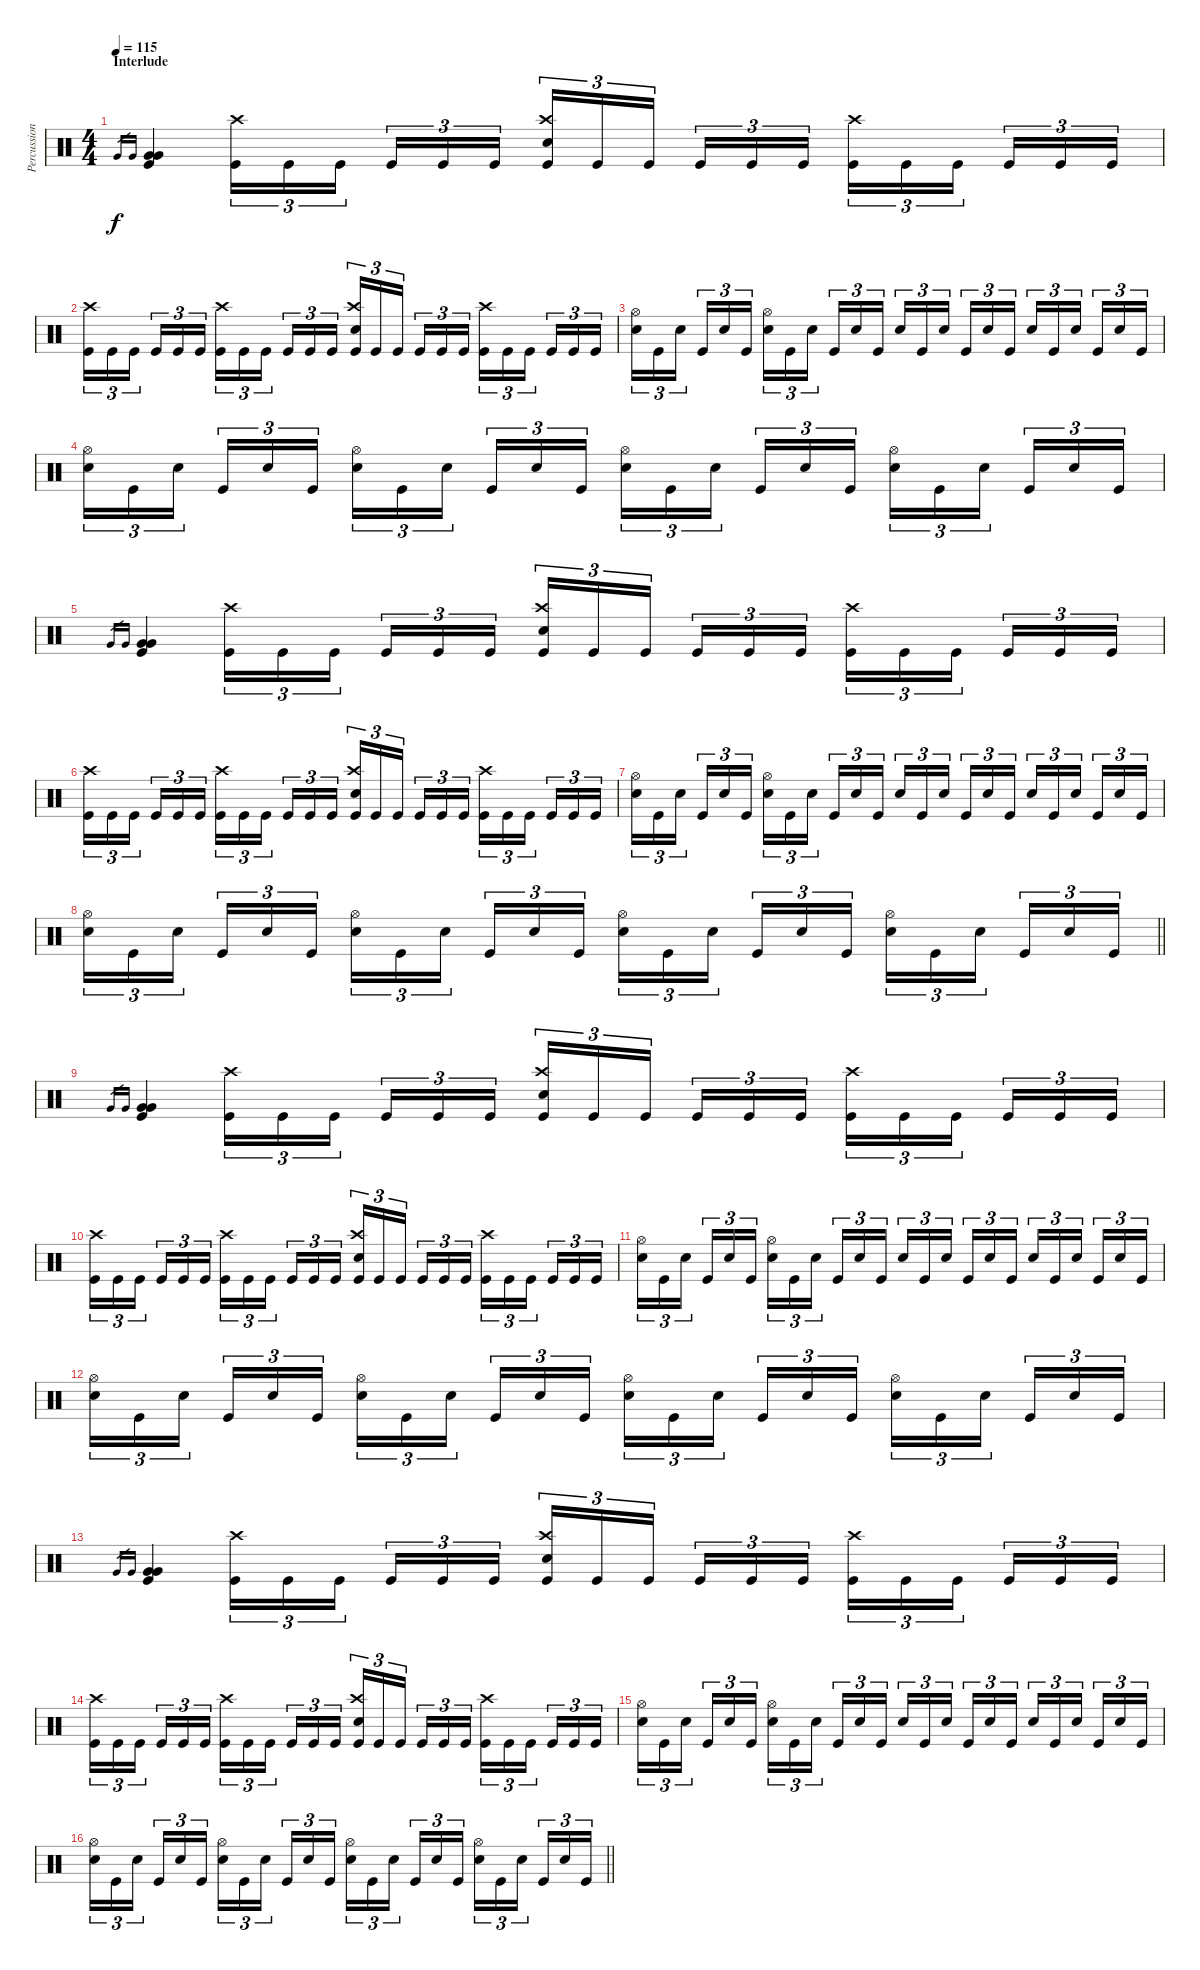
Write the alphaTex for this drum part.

\track ("Percussions" "Percussion") {instrument percussion}
\staff {score}
\articulation defaults
\ts (4 4)
\section ("" "Interlude")
\tempo 115
\clef neutral
\ks c "Very Low Tom (hit)".16{gr dy f} "Very Low Tom (hit)".16{gr}
("Very Low Tom (hit)" "Very Low Tom (hit)" "Kick (hit)").4 ("Crash high (hit)" "Kick (hit)").16{tu (3 2)} "Kick (hit)".16{tu (3 2)} "Kick (hit)".16{tu (3 2) beam splitsecondary} "Kick (hit)".16{tu (3 2)} "Kick (hit)".16{tu (3 2)} "Kick (hit)".16{tu (3 2)} ("Crash high (hit)" "Electric Snare (hit)" "Kick (hit)").16{tu (3 2)} "Kick (hit)".16{tu (3 2)} "Kick (hit)".16{tu (3 2) beam splitsecondary} "Kick (hit)".16{tu (3 2)} "Kick (hit)".16{tu (3 2)} "Kick (hit)".16{tu (3 2)} ("Crash high (hit)" "Kick (hit)").16{tu (3 2)} "Kick (hit)".16{tu (3 2)} "Kick (hit)".16{tu (3 2) beam splitsecondary} "Kick (hit)".16{tu (3 2)} "Kick (hit)".16{tu (3 2)} "Kick (hit)".16{tu (3 2)} |
("Crash high (hit)" "Kick (hit)").16{tu (3 2)} "Kick (hit)".16{tu (3 2)} "Kick (hit)".16{tu (3 2) beam splitsecondary} "Kick (hit)".16{tu (3 2)} "Kick (hit)".16{tu (3 2)} "Kick (hit)".16{tu (3 2)} ("Crash high (hit)" "Kick (hit)").16{tu (3 2)} "Kick (hit)".16{tu (3 2)} "Kick (hit)".16{tu (3 2) beam splitsecondary} "Kick (hit)".16{tu (3 2)} "Kick (hit)".16{tu (3 2)} "Kick (hit)".16{tu (3 2)} ("Crash high (hit)" "Electric Snare (hit)" "Kick (hit)").16{tu (3 2)} "Kick (hit)".16{tu (3 2)} "Kick (hit)".16{tu (3 2) beam splitsecondary} "Kick (hit)".16{tu (3 2)} "Kick (hit)".16{tu (3 2)} "Kick (hit)".16{tu (3 2)} ("Crash high (hit)" "Kick (hit)").16{tu (3 2)} "Kick (hit)".16{tu (3 2)} "Kick (hit)".16{tu (3 2) beam splitsecondary} "Kick (hit)".16{tu (3 2)} "Kick (hit)".16{tu (3 2)} "Kick (hit)".16{tu (3 2)} |
("Hi-Hat (open)" "Electric Snare (hit)").16{tu (3 2)} "Kick (hit)".16{tu (3 2)} "Electric Snare (hit)".16{tu (3 2) beam splitsecondary} "Kick (hit)".16{tu (3 2)} "Electric Snare (hit)".16{tu (3 2)} "Kick (hit)".16{tu (3 2)} ("Hi-Hat (open)" "Electric Snare (hit)").16{tu (3 2)} "Kick (hit)".16{tu (3 2)} "Electric Snare (hit)".16{tu (3 2) beam splitsecondary} "Kick (hit)".16{tu (3 2)} "Electric Snare (hit)".16{tu (3 2)} "Kick (hit)".16{tu (3 2)} "Electric Snare (hit)".16{tu (3 2)} "Kick (hit)".16{tu (3 2)} "Electric Snare (hit)".16{tu (3 2) beam splitsecondary} "Kick (hit)".16{tu (3 2)} "Electric Snare (hit)".16{tu (3 2)} "Kick (hit)".16{tu (3 2)} "Electric Snare (hit)".16{tu (3 2)} "Kick (hit)".16{tu (3 2)} "Electric Snare (hit)".16{tu (3 2) beam splitsecondary} "Kick (hit)".16{tu (3 2)} "Electric Snare (hit)".16{tu (3 2)} "Kick (hit)".16{tu (3 2)} |
("Hi-Hat (open)" "Electric Snare (hit)").16{tu (3 2)} "Kick (hit)".16{tu (3 2)} "Electric Snare (hit)".16{tu (3 2) beam splitsecondary} "Kick (hit)".16{tu (3 2)} "Electric Snare (hit)".16{tu (3 2)} "Kick (hit)".16{tu (3 2)} ("Hi-Hat (open)" "Electric Snare (hit)").16{tu (3 2)} "Kick (hit)".16{tu (3 2)} "Electric Snare (hit)".16{tu (3 2) beam splitsecondary} "Kick (hit)".16{tu (3 2)} "Electric Snare (hit)".16{tu (3 2)} "Kick (hit)".16{tu (3 2)} ("Hi-Hat (open)" "Electric Snare (hit)").16{tu (3 2)} "Kick (hit)".16{tu (3 2)} "Electric Snare (hit)".16{tu (3 2) beam splitsecondary} "Kick (hit)".16{tu (3 2)} "Electric Snare (hit)".16{tu (3 2)} "Kick (hit)".16{tu (3 2)} ("Hi-Hat (open)" "Electric Snare (hit)").16{tu (3 2)} "Kick (hit)".16{tu (3 2)} "Electric Snare (hit)".16{tu (3 2) beam splitsecondary} "Kick (hit)".16{tu (3 2)} "Electric Snare (hit)".16{tu (3 2)} "Kick (hit)".16{tu (3 2)} |
"Very Low Tom (hit)".16{gr} "Very Low Tom (hit)".16{gr} ("Very Low Tom (hit)" "Very Low Tom (hit)" "Kick (hit)").4 ("Crash high (hit)" "Kick (hit)").16{tu (3 2)} "Kick (hit)".16{tu (3 2)} "Kick (hit)".16{tu (3 2) beam splitsecondary} "Kick (hit)".16{tu (3 2)} "Kick (hit)".16{tu (3 2)} "Kick (hit)".16{tu (3 2)} ("Crash high (hit)" "Electric Snare (hit)" "Kick (hit)").16{tu (3 2)} "Kick (hit)".16{tu (3 2)} "Kick (hit)".16{tu (3 2) beam splitsecondary} "Kick (hit)".16{tu (3 2)} "Kick (hit)".16{tu (3 2)} "Kick (hit)".16{tu (3 2)} ("Crash high (hit)" "Kick (hit)").16{tu (3 2)} "Kick (hit)".16{tu (3 2)} "Kick (hit)".16{tu (3 2) beam splitsecondary} "Kick (hit)".16{tu (3 2)} "Kick (hit)".16{tu (3 2)} "Kick (hit)".16{tu (3 2)} |
("Crash high (hit)" "Kick (hit)").16{tu (3 2)} "Kick (hit)".16{tu (3 2)} "Kick (hit)".16{tu (3 2) beam splitsecondary} "Kick (hit)".16{tu (3 2)} "Kick (hit)".16{tu (3 2)} "Kick (hit)".16{tu (3 2)} ("Crash high (hit)" "Kick (hit)").16{tu (3 2)} "Kick (hit)".16{tu (3 2)} "Kick (hit)".16{tu (3 2) beam splitsecondary} "Kick (hit)".16{tu (3 2)} "Kick (hit)".16{tu (3 2)} "Kick (hit)".16{tu (3 2)} ("Crash high (hit)" "Electric Snare (hit)" "Kick (hit)").16{tu (3 2)} "Kick (hit)".16{tu (3 2)} "Kick (hit)".16{tu (3 2) beam splitsecondary} "Kick (hit)".16{tu (3 2)} "Kick (hit)".16{tu (3 2)} "Kick (hit)".16{tu (3 2)} ("Crash high (hit)" "Kick (hit)").16{tu (3 2)} "Kick (hit)".16{tu (3 2)} "Kick (hit)".16{tu (3 2) beam splitsecondary} "Kick (hit)".16{tu (3 2)} "Kick (hit)".16{tu (3 2)} "Kick (hit)".16{tu (3 2)} |
("Hi-Hat (open)" "Electric Snare (hit)").16{tu (3 2)} "Kick (hit)".16{tu (3 2)} "Electric Snare (hit)".16{tu (3 2) beam splitsecondary} "Kick (hit)".16{tu (3 2)} "Electric Snare (hit)".16{tu (3 2)} "Kick (hit)".16{tu (3 2)} ("Hi-Hat (open)" "Electric Snare (hit)").16{tu (3 2)} "Kick (hit)".16{tu (3 2)} "Electric Snare (hit)".16{tu (3 2) beam splitsecondary} "Kick (hit)".16{tu (3 2)} "Electric Snare (hit)".16{tu (3 2)} "Kick (hit)".16{tu (3 2)} "Electric Snare (hit)".16{tu (3 2)} "Kick (hit)".16{tu (3 2)} "Electric Snare (hit)".16{tu (3 2) beam splitsecondary} "Kick (hit)".16{tu (3 2)} "Electric Snare (hit)".16{tu (3 2)} "Kick (hit)".16{tu (3 2)} "Electric Snare (hit)".16{tu (3 2)} "Kick (hit)".16{tu (3 2)} "Electric Snare (hit)".16{tu (3 2) beam splitsecondary} "Kick (hit)".16{tu (3 2)} "Electric Snare (hit)".16{tu (3 2)} "Kick (hit)".16{tu (3 2)} |
\barLineRight lightlight
("Hi-Hat (open)" "Electric Snare (hit)").16{tu (3 2)} "Kick (hit)".16{tu (3 2)} "Electric Snare (hit)".16{tu (3 2) beam splitsecondary} "Kick (hit)".16{tu (3 2)} "Electric Snare (hit)".16{tu (3 2)} "Kick (hit)".16{tu (3 2)} ("Hi-Hat (open)" "Electric Snare (hit)").16{tu (3 2)} "Kick (hit)".16{tu (3 2)} "Electric Snare (hit)".16{tu (3 2) beam splitsecondary} "Kick (hit)".16{tu (3 2)} "Electric Snare (hit)".16{tu (3 2)} "Kick (hit)".16{tu (3 2)} ("Hi-Hat (open)" "Electric Snare (hit)").16{tu (3 2)} "Kick (hit)".16{tu (3 2)} "Electric Snare (hit)".16{tu (3 2) beam splitsecondary} "Kick (hit)".16{tu (3 2)} "Electric Snare (hit)".16{tu (3 2)} "Kick (hit)".16{tu (3 2)} ("Hi-Hat (open)" "Electric Snare (hit)").16{tu (3 2)} "Kick (hit)".16{tu (3 2)} "Electric Snare (hit)".16{tu (3 2) beam splitsecondary} "Kick (hit)".16{tu (3 2)} "Electric Snare (hit)".16{tu (3 2)} "Kick (hit)".16{tu (3 2)} |
"Very Low Tom (hit)".16{gr} "Very Low Tom (hit)".16{gr} ("Very Low Tom (hit)" "Very Low Tom (hit)" "Kick (hit)").4 ("Crash high (hit)" "Kick (hit)").16{tu (3 2)} "Kick (hit)".16{tu (3 2)} "Kick (hit)".16{tu (3 2) beam splitsecondary} "Kick (hit)".16{tu (3 2)} "Kick (hit)".16{tu (3 2)} "Kick (hit)".16{tu (3 2)} ("Crash high (hit)" "Electric Snare (hit)" "Kick (hit)").16{tu (3 2)} "Kick (hit)".16{tu (3 2)} "Kick (hit)".16{tu (3 2) beam splitsecondary} "Kick (hit)".16{tu (3 2)} "Kick (hit)".16{tu (3 2)} "Kick (hit)".16{tu (3 2)} ("Crash high (hit)" "Kick (hit)").16{tu (3 2)} "Kick (hit)".16{tu (3 2)} "Kick (hit)".16{tu (3 2) beam splitsecondary} "Kick (hit)".16{tu (3 2)} "Kick (hit)".16{tu (3 2)} "Kick (hit)".16{tu (3 2)} |
("Crash high (hit)" "Kick (hit)").16{tu (3 2)} "Kick (hit)".16{tu (3 2)} "Kick (hit)".16{tu (3 2) beam splitsecondary} "Kick (hit)".16{tu (3 2)} "Kick (hit)".16{tu (3 2)} "Kick (hit)".16{tu (3 2)} ("Crash high (hit)" "Kick (hit)").16{tu (3 2)} "Kick (hit)".16{tu (3 2)} "Kick (hit)".16{tu (3 2) beam splitsecondary} "Kick (hit)".16{tu (3 2)} "Kick (hit)".16{tu (3 2)} "Kick (hit)".16{tu (3 2)} ("Crash high (hit)" "Electric Snare (hit)" "Kick (hit)").16{tu (3 2)} "Kick (hit)".16{tu (3 2)} "Kick (hit)".16{tu (3 2) beam splitsecondary} "Kick (hit)".16{tu (3 2)} "Kick (hit)".16{tu (3 2)} "Kick (hit)".16{tu (3 2)} ("Crash high (hit)" "Kick (hit)").16{tu (3 2)} "Kick (hit)".16{tu (3 2)} "Kick (hit)".16{tu (3 2) beam splitsecondary} "Kick (hit)".16{tu (3 2)} "Kick (hit)".16{tu (3 2)} "Kick (hit)".16{tu (3 2)} |
("Hi-Hat (open)" "Electric Snare (hit)").16{tu (3 2)} "Kick (hit)".16{tu (3 2)} "Electric Snare (hit)".16{tu (3 2) beam splitsecondary} "Kick (hit)".16{tu (3 2)} "Electric Snare (hit)".16{tu (3 2)} "Kick (hit)".16{tu (3 2)} ("Hi-Hat (open)" "Electric Snare (hit)").16{tu (3 2)} "Kick (hit)".16{tu (3 2)} "Electric Snare (hit)".16{tu (3 2) beam splitsecondary} "Kick (hit)".16{tu (3 2)} "Electric Snare (hit)".16{tu (3 2)} "Kick (hit)".16{tu (3 2)} "Electric Snare (hit)".16{tu (3 2)} "Kick (hit)".16{tu (3 2)} "Electric Snare (hit)".16{tu (3 2) beam splitsecondary} "Kick (hit)".16{tu (3 2)} "Electric Snare (hit)".16{tu (3 2)} "Kick (hit)".16{tu (3 2)} "Electric Snare (hit)".16{tu (3 2)} "Kick (hit)".16{tu (3 2)} "Electric Snare (hit)".16{tu (3 2) beam splitsecondary} "Kick (hit)".16{tu (3 2)} "Electric Snare (hit)".16{tu (3 2)} "Kick (hit)".16{tu (3 2)} |
("Hi-Hat (open)" "Electric Snare (hit)").16{tu (3 2)} "Kick (hit)".16{tu (3 2)} "Electric Snare (hit)".16{tu (3 2) beam splitsecondary} "Kick (hit)".16{tu (3 2)} "Electric Snare (hit)".16{tu (3 2)} "Kick (hit)".16{tu (3 2)} ("Hi-Hat (open)" "Electric Snare (hit)").16{tu (3 2)} "Kick (hit)".16{tu (3 2)} "Electric Snare (hit)".16{tu (3 2) beam splitsecondary} "Kick (hit)".16{tu (3 2)} "Electric Snare (hit)".16{tu (3 2)} "Kick (hit)".16{tu (3 2)} ("Hi-Hat (open)" "Electric Snare (hit)").16{tu (3 2)} "Kick (hit)".16{tu (3 2)} "Electric Snare (hit)".16{tu (3 2) beam splitsecondary} "Kick (hit)".16{tu (3 2)} "Electric Snare (hit)".16{tu (3 2)} "Kick (hit)".16{tu (3 2)} ("Hi-Hat (open)" "Electric Snare (hit)").16{tu (3 2)} "Kick (hit)".16{tu (3 2)} "Electric Snare (hit)".16{tu (3 2) beam splitsecondary} "Kick (hit)".16{tu (3 2)} "Electric Snare (hit)".16{tu (3 2)} "Kick (hit)".16{tu (3 2)} |
"Very Low Tom (hit)".16{gr} "Very Low Tom (hit)".16{gr} ("Very Low Tom (hit)" "Very Low Tom (hit)" "Kick (hit)").4 ("Crash high (hit)" "Kick (hit)").16{tu (3 2)} "Kick (hit)".16{tu (3 2)} "Kick (hit)".16{tu (3 2) beam splitsecondary} "Kick (hit)".16{tu (3 2)} "Kick (hit)".16{tu (3 2)} "Kick (hit)".16{tu (3 2)} ("Crash high (hit)" "Electric Snare (hit)" "Kick (hit)").16{tu (3 2)} "Kick (hit)".16{tu (3 2)} "Kick (hit)".16{tu (3 2) beam splitsecondary} "Kick (hit)".16{tu (3 2)} "Kick (hit)".16{tu (3 2)} "Kick (hit)".16{tu (3 2)} ("Crash high (hit)" "Kick (hit)").16{tu (3 2)} "Kick (hit)".16{tu (3 2)} "Kick (hit)".16{tu (3 2) beam splitsecondary} "Kick (hit)".16{tu (3 2)} "Kick (hit)".16{tu (3 2)} "Kick (hit)".16{tu (3 2)} |
("Crash high (hit)" "Kick (hit)").16{tu (3 2)} "Kick (hit)".16{tu (3 2)} "Kick (hit)".16{tu (3 2) beam splitsecondary} "Kick (hit)".16{tu (3 2)} "Kick (hit)".16{tu (3 2)} "Kick (hit)".16{tu (3 2)} ("Crash high (hit)" "Kick (hit)").16{tu (3 2)} "Kick (hit)".16{tu (3 2)} "Kick (hit)".16{tu (3 2) beam splitsecondary} "Kick (hit)".16{tu (3 2)} "Kick (hit)".16{tu (3 2)} "Kick (hit)".16{tu (3 2)} ("Crash high (hit)" "Electric Snare (hit)" "Kick (hit)").16{tu (3 2)} "Kick (hit)".16{tu (3 2)} "Kick (hit)".16{tu (3 2) beam splitsecondary} "Kick (hit)".16{tu (3 2)} "Kick (hit)".16{tu (3 2)} "Kick (hit)".16{tu (3 2)} ("Crash high (hit)" "Kick (hit)").16{tu (3 2)} "Kick (hit)".16{tu (3 2)} "Kick (hit)".16{tu (3 2) beam splitsecondary} "Kick (hit)".16{tu (3 2)} "Kick (hit)".16{tu (3 2)} "Kick (hit)".16{tu (3 2)} |
("Hi-Hat (open)" "Electric Snare (hit)").16{tu (3 2)} "Kick (hit)".16{tu (3 2)} "Electric Snare (hit)".16{tu (3 2) beam splitsecondary} "Kick (hit)".16{tu (3 2)} "Electric Snare (hit)".16{tu (3 2)} "Kick (hit)".16{tu (3 2)} ("Hi-Hat (open)" "Electric Snare (hit)").16{tu (3 2)} "Kick (hit)".16{tu (3 2)} "Electric Snare (hit)".16{tu (3 2) beam splitsecondary} "Kick (hit)".16{tu (3 2)} "Electric Snare (hit)".16{tu (3 2)} "Kick (hit)".16{tu (3 2)} "Electric Snare (hit)".16{tu (3 2)} "Kick (hit)".16{tu (3 2)} "Electric Snare (hit)".16{tu (3 2) beam splitsecondary} "Kick (hit)".16{tu (3 2)} "Electric Snare (hit)".16{tu (3 2)} "Kick (hit)".16{tu (3 2)} "Electric Snare (hit)".16{tu (3 2)} "Kick (hit)".16{tu (3 2)} "Electric Snare (hit)".16{tu (3 2) beam splitsecondary} "Kick (hit)".16{tu (3 2)} "Electric Snare (hit)".16{tu (3 2)} "Kick (hit)".16{tu (3 2)} |
\barLineRight lightlight
("Hi-Hat (open)" "Electric Snare (hit)").16{tu (3 2)} "Kick (hit)".16{tu (3 2)} "Electric Snare (hit)".16{tu (3 2) beam splitsecondary} "Kick (hit)".16{tu (3 2)} "Electric Snare (hit)".16{tu (3 2)} "Kick (hit)".16{tu (3 2)} ("Hi-Hat (open)" "Electric Snare (hit)").16{tu (3 2)} "Kick (hit)".16{tu (3 2)} "Electric Snare (hit)".16{tu (3 2) beam splitsecondary} "Kick (hit)".16{tu (3 2)} "Electric Snare (hit)".16{tu (3 2)} "Kick (hit)".16{tu (3 2)} ("Hi-Hat (open)" "Electric Snare (hit)").16{tu (3 2)} "Kick (hit)".16{tu (3 2)} "Electric Snare (hit)".16{tu (3 2) beam splitsecondary} "Kick (hit)".16{tu (3 2)} "Electric Snare (hit)".16{tu (3 2)} "Kick (hit)".16{tu (3 2)} ("Hi-Hat (open)" "Electric Snare (hit)").16{tu (3 2)} "Kick (hit)".16{tu (3 2)} "Electric Snare (hit)".16{tu (3 2) beam splitsecondary} "Kick (hit)".16{tu (3 2)} "Electric Snare (hit)".16{tu (3 2)} "Kick (hit)".16{tu (3 2)}
